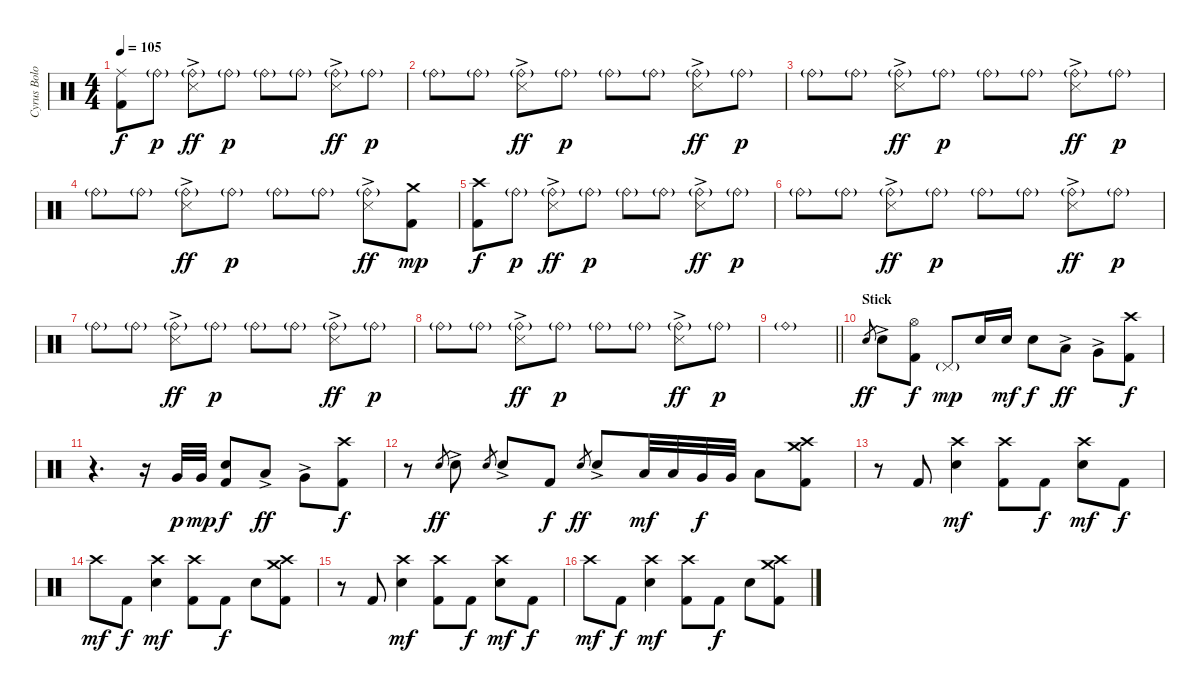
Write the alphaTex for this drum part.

\track ("Cyrus Bolooki" "Cyrus Bolo") {instrument percussion}
\staff {score}
\articulation defaults
\ts (4 4)
\tempo 105
\clef neutral
\ks c
("Ride (middle)" "Kick (hit) 2").8{dy f} "Ride (bell)"{g}.8{dy p} ("Ride (bell)"{g} "Snare (side stick) 3"{ac}).8{dy ff} "Ride (bell)"{g}.8{dy p} "Ride (bell)"{g}.8 "Ride (bell)"{g}.8 ("Ride (bell)"{g} "Snare (side stick) 3"{ac}).8{dy ff} "Ride (bell)"{g}.8{dy p} |
"Ride (bell)"{g}.8 "Ride (bell)"{g}.8 ("Ride (bell)"{g} "Snare (side stick) 3"{ac}).8{dy ff} "Ride (bell)"{g}.8{dy p} "Ride (bell)"{g}.8 "Ride (bell)"{g}.8 ("Ride (bell)"{g} "Snare (side stick) 3"{ac}).8{dy ff} "Ride (bell)"{g}.8{dy p} |
"Ride (bell)"{g}.8 "Ride (bell)"{g}.8 ("Ride (bell)"{g} "Snare (side stick) 3"{ac}).8{dy ff} "Ride (bell)"{g}.8{dy p} "Ride (bell)"{g}.8 "Ride (bell)"{g}.8 ("Ride (bell)"{g} "Snare (side stick) 3"{ac}).8{dy ff} "Ride (bell)"{g}.8{dy p} |
"Ride (bell)"{g}.8 "Ride (bell)"{g}.8 ("Ride (bell)"{g} "Snare (side stick) 3"{ac}).8{dy ff} "Ride (bell)"{g}.8{dy p} "Ride (bell)"{g}.8 "Ride (bell)"{g}.8 ("Ride (bell)"{g} "Snare (side stick) 3"{ac}).8{dy ff} ("Crash medium (hit)" "Kick (hit) 2").8{dy mp} |
("Crash high (hit)" "Kick (hit) 2").8{dy f} "Ride (bell)"{g}.8{dy p} ("Ride (bell)"{g} "Snare (side stick) 3"{ac}).8{dy ff} "Ride (bell)"{g}.8{dy p} "Ride (bell)"{g}.8 "Ride (bell)"{g}.8 ("Ride (bell)"{g} "Snare (side stick) 3"{ac}).8{dy ff} "Ride (bell)"{g}.8{dy p} |
"Ride (bell)"{g}.8 "Ride (bell)"{g}.8 ("Ride (bell)"{g} "Snare (side stick) 3"{ac}).8{dy ff} "Ride (bell)"{g}.8{dy p} "Ride (bell)"{g}.8 "Ride (bell)"{g}.8 ("Ride (bell)"{g} "Snare (side stick) 3"{ac}).8{dy ff} "Ride (bell)"{g}.8{dy p} |
"Ride (bell)"{g}.8 "Ride (bell)"{g}.8 ("Ride (bell)"{g} "Snare (side stick) 3"{ac}).8{dy ff} "Ride (bell)"{g}.8{dy p} "Ride (bell)"{g}.8 "Ride (bell)"{g}.8 ("Ride (bell)"{g} "Snare (side stick) 3"{ac}).8{dy ff} "Ride (bell)"{g}.8{dy p} |
"Ride (bell)"{g}.8 "Ride (bell)"{g}.8 ("Ride (bell)"{g} "Snare (side stick) 3"{ac}).8{dy ff} "Ride (bell)"{g}.8{dy p} "Ride (bell)"{g}.8 "Ride (bell)"{g}.8 ("Ride (bell)"{g} "Snare (side stick) 3"{ac}).8{dy ff} "Ride (bell)"{g}.8{dy p} |
\barLineRight lightlight "Ride (bell)"{g}.1
|
\section ("" "Stick")
"Electric Snare (hit)".8{gr dy ff} "Electric Snare (hit)"{ac}.8 ("Hi-Hat (open)" "Kick (hit) 2").8{dy f} "Pedal Hi-Hat (hit)"{g}.8{dy mp} "Electric Snare (hit)".16 "Electric Snare (hit)".16{dy mf} "Electric Snare (hit)".8{dy f} "Low Tom (hit)"{ac}.8{dy ff} "Very Low Tom (hit)"{ac}.8 ("Crash high (hit)" "Kick (hit) 2").8{dy f} |
r.4{d} r.16 "Very Low Tom (hit)".32{dy p} "Very Low Tom (hit)".32{dy mp} ("Electric Snare (hit)" "Kick (hit) 2").8{dy f} "Low Tom (hit)"{ac}.8{dy ff} "Very Low Tom (hit)"{ac}.8 ("Crash high (hit)" "Kick (hit) 2").8{dy f} |
r.8 "Electric Snare (hit)".8{gr dy ff} "Electric Snare (hit)"{ac}.8 "Electric Snare (hit)".8{gr} "Electric Snare (hit)"{ac}.8 "Kick (hit) 2".8{dy f} "Electric Snare (hit)".8{gr dy ff} "Electric Snare (hit)"{ac}.8 "Low Tom (hit)".32{dy mf} "Low Tom (hit)".32 "Very Low Tom (hit)".32{dy f} "Very Low Tom (hit)".32 "Low Floor Tom (hit)".8 ("Crash high (hit)" "Crash medium (hit)" "Kick (hit) 2").8 |
r.8 "Kick (hit) 2".8 ("Crash high (hit)" "Electric Snare (hit)").4{dy mf} ("Crash high (hit)" "Kick (hit) 2").8 "Kick (hit) 2".8{dy f} ("Crash high (hit)" "Electric Snare (hit)").8{dy mf} "Kick (hit) 2".8{dy f} |
"Crash high (hit)".8{dy mf} "Kick (hit) 2".8{dy f} ("Crash high (hit)" "Electric Snare (hit)").4{dy mf} ("Crash high (hit)" "Kick (hit) 2").8 "Kick (hit) 2".8{dy f} "Electric Snare (hit)".8 ("Crash high (hit)" "Crash medium (hit)" "Kick (hit) 2").8 |
r.8 "Kick (hit) 2".8 ("Crash high (hit)" "Electric Snare (hit)").4{dy mf} ("Crash high (hit)" "Kick (hit) 2").8 "Kick (hit) 2".8{dy f} ("Crash high (hit)" "Electric Snare (hit)").8{dy mf} "Kick (hit) 2".8{dy f} |
"Crash high (hit)".8{dy mf} "Kick (hit) 2".8{dy f} ("Crash high (hit)" "Electric Snare (hit)").4{dy mf} ("Crash high (hit)" "Kick (hit) 2").8 "Kick (hit) 2".8{dy f} "Electric Snare (hit)".8 ("Crash high (hit)" "Crash medium (hit)" "Kick (hit) 2").8
